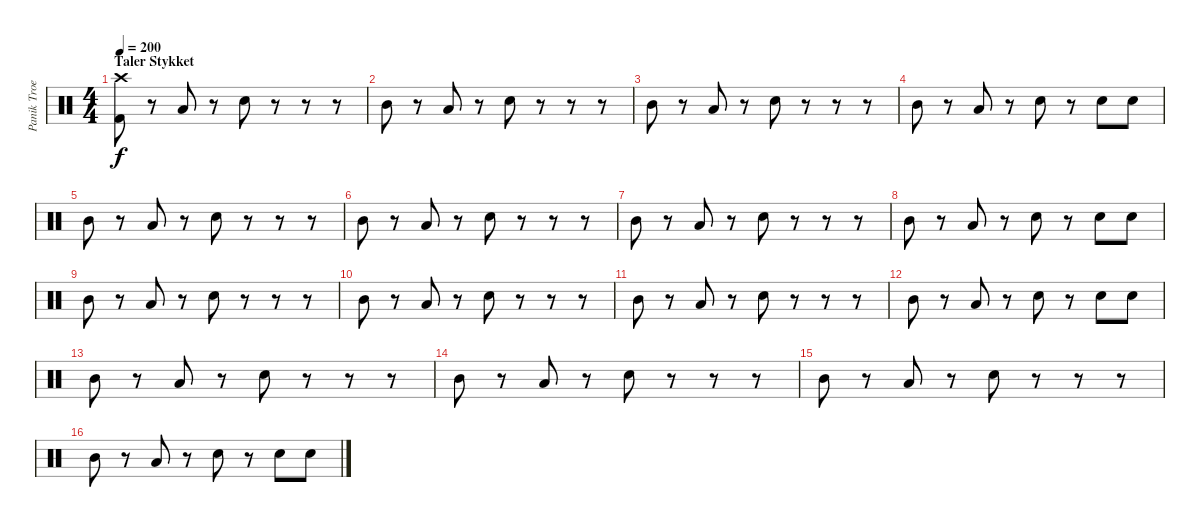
\track ("Panik Troels ( Dengang )" "Panik Troe") {instrument percussion}
\staff {score}
\articulation defaults
\ts (4 4)
\section ("" "Taler Stykket")
\tempo 200
\clef neutral
\ks c
("Kick (hit) 2" "Crash high (hit)").8{dy f} r.8 "Low Tom (hit)".8 r.8 "Snare (hit) 2".8 r.8 r.8 r.8 |
"Mid Tom (hit)".8 r.8 "Low Tom (hit)".8 r.8 "Snare (hit) 2".8 r.8 r.8 r.8 |
"Mid Tom (hit)".8 r.8 "Low Tom (hit)".8 r.8 "Snare (hit) 2".8 r.8 r.8 r.8 |
"Mid Tom (hit)".8 r.8 "Low Tom (hit)".8 r.8 "Snare (hit) 2".8 r.8 "Snare (hit) 2".8 "Snare (hit) 2".8 |
"Mid Tom (hit)".8 r.8 "Low Tom (hit)".8 r.8 "Snare (hit) 2".8 r.8 r.8 r.8 |
"Mid Tom (hit)".8 r.8 "Low Tom (hit)".8 r.8 "Snare (hit) 2".8 r.8 r.8 r.8 |
"Mid Tom (hit)".8 r.8 "Low Tom (hit)".8 r.8 "Snare (hit) 2".8 r.8 r.8 r.8 |
"Mid Tom (hit)".8 r.8 "Low Tom (hit)".8 r.8 "Snare (hit) 2".8 r.8 "Snare (hit) 2".8 "Snare (hit) 2".8 |
"Mid Tom (hit)".8 r.8 "Low Tom (hit)".8 r.8 "Snare (hit) 2".8 r.8 r.8 r.8 |
"Mid Tom (hit)".8 r.8 "Low Tom (hit)".8 r.8 "Snare (hit) 2".8 r.8 r.8 r.8 |
"Mid Tom (hit)".8 r.8 "Low Tom (hit)".8 r.8 "Snare (hit) 2".8 r.8 r.8 r.8 |
"Mid Tom (hit)".8 r.8 "Low Tom (hit)".8 r.8 "Snare (hit) 2".8 r.8 "Snare (hit) 2".8 "Snare (hit) 2".8 |
"Mid Tom (hit)".8 r.8 "Low Tom (hit)".8 r.8 "Snare (hit) 2".8 r.8 r.8 r.8 |
"Mid Tom (hit)".8 r.8 "Low Tom (hit)".8 r.8 "Snare (hit) 2".8 r.8 r.8 r.8 |
"Mid Tom (hit)".8 r.8 "Low Tom (hit)".8 r.8 "Snare (hit) 2".8 r.8 r.8 r.8 |
"Mid Tom (hit)".8 r.8 "Low Tom (hit)".8 r.8 "Snare (hit) 2".8 r.8 "Snare (hit) 2".8 "Snare (hit) 2".8
